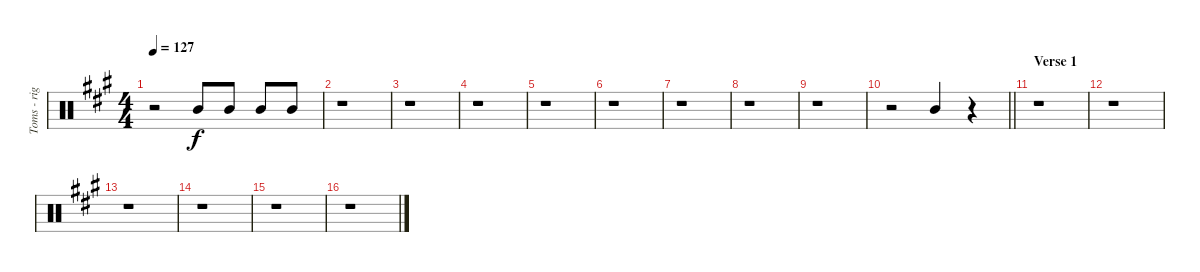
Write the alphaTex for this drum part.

\track ("Toms - right" "Toms - rig") {instrument percussion}
\staff {score}
\articulation defaults
\ts (4 4)
\tempo 127
\clef neutral
\ks a
r.2{dy f} "Mid Tom (hit)".8{beam Up} "Mid Tom (hit)".8{beam Up} "Mid Tom (hit)".8{beam Up} "Mid Tom (hit)".8{beam Up} |
r.1 |
r.1 |
r.1 |
r.1 |
r.1 |
r.1 |
r.1 |
r.1 |
\barLineRight lightlight
r.2 "Mid Tom (hit)".4{beam Up} r.4 |
\section ("" "Verse 1")
r.1 |
r.1 |
r.1 |
r.1 |
r.1 |
r.1
